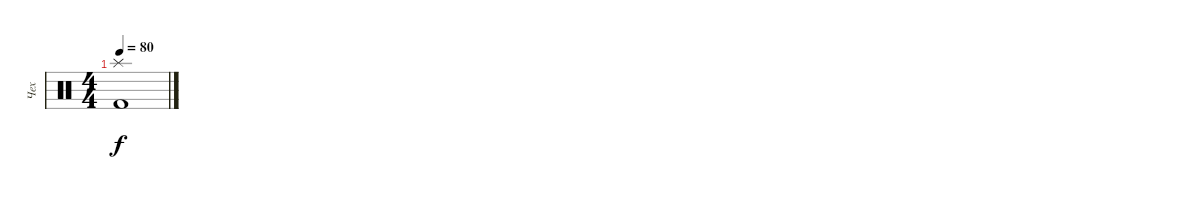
\track ("Чех" "Чех") {instrument percussion}
\staff {score}
\articulation defaults
\ts (4 4)
\tempo 80
\clef neutral
\ks c
("Splash (hit)" "Kick (hit) 2").1{dy f}
